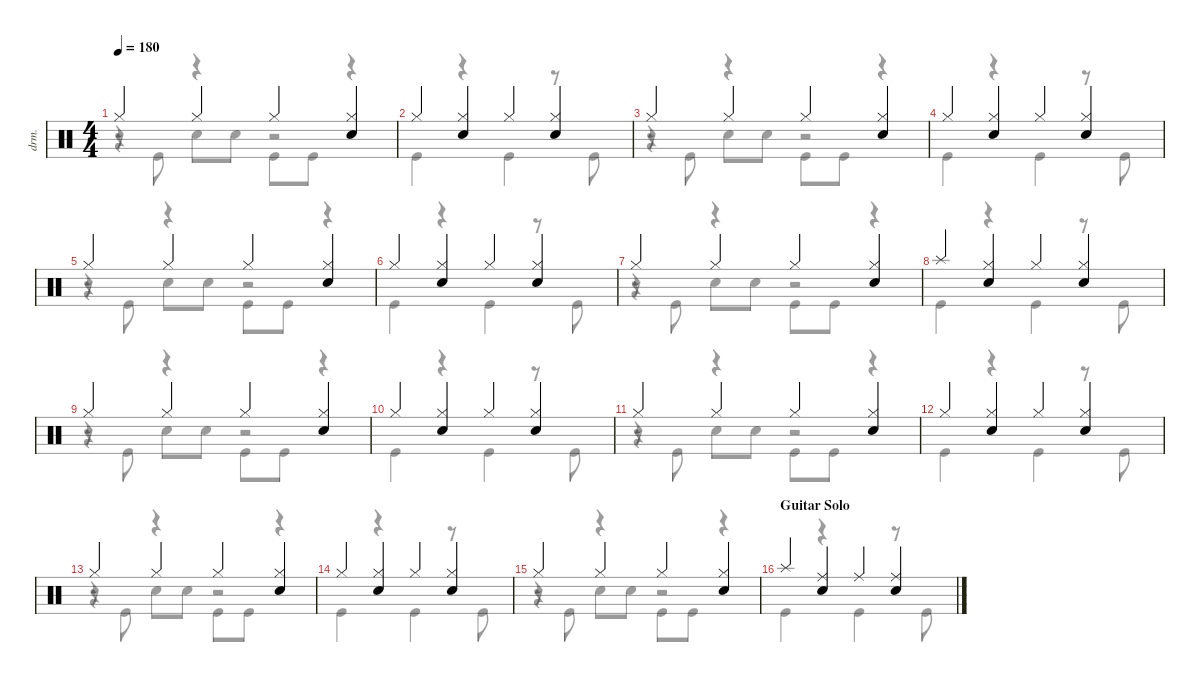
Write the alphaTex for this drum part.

\defaultSystemsLayout 4
\hideDynamics
\bracketExtendMode nobrackets
\otherSystemsTrackNameOrientation horizontal
\track ("Drumkit" "drm.") {instrument percussion}
\staff {score}
\articulation defaults
\voice
\ts (4 4)
\tempo 180
\clef neutral
\ks c "Hi-Hat (closed)".4{dy mf} "Hi-Hat (closed)".4 "Hi-Hat (closed)".4
("Hi-Hat (closed)" "Snare (hit) 2").4 |
"Hi-Hat (closed)".4 ("Hi-Hat (closed)" "Snare (hit) 2").4 "Hi-Hat (closed)".4 ("Hi-Hat (closed)" "Snare (hit) 2").4 |
"Hi-Hat (closed)".4 "Hi-Hat (closed)".4 "Hi-Hat (closed)".4 ("Hi-Hat (closed)" "Snare (hit) 2").4 |
"Hi-Hat (closed)".4 ("Hi-Hat (closed)" "Snare (hit) 2").4 "Hi-Hat (closed)".4 ("Hi-Hat (closed)" "Snare (hit) 2").4 |
"Hi-Hat (closed)".4 "Hi-Hat (closed)".4 "Hi-Hat (closed)".4 ("Hi-Hat (closed)" "Snare (hit) 2").4 |
"Hi-Hat (closed)".4 ("Hi-Hat (closed)" "Snare (hit) 2").4 "Hi-Hat (closed)".4 ("Hi-Hat (closed)" "Snare (hit) 2").4 |
"Hi-Hat (closed)".4 "Hi-Hat (closed)".4 "Hi-Hat (closed)".4 ("Hi-Hat (closed)" "Snare (hit) 2").4 |
"Splash (hit)".4 ("Hi-Hat (closed)" "Snare (hit) 2").4 "Hi-Hat (closed)".4 ("Hi-Hat (closed)" "Snare (hit) 2").4 |
"Hi-Hat (closed)".4 "Hi-Hat (closed)".4 "Hi-Hat (closed)".4 ("Hi-Hat (closed)" "Snare (hit) 2").4 |
"Hi-Hat (closed)".4 ("Hi-Hat (closed)" "Snare (hit) 2").4 "Hi-Hat (closed)".4 ("Hi-Hat (closed)" "Snare (hit) 2").4 |
"Hi-Hat (closed)".4 "Hi-Hat (closed)".4 "Hi-Hat (closed)".4 ("Hi-Hat (closed)" "Snare (hit) 2").4 |
"Hi-Hat (closed)".4 ("Hi-Hat (closed)" "Snare (hit) 2").4 "Hi-Hat (closed)".4 ("Hi-Hat (closed)" "Snare (hit) 2").4 |
"Hi-Hat (closed)".4 "Hi-Hat (closed)".4 "Hi-Hat (closed)".4 ("Hi-Hat (closed)" "Snare (hit) 2").4 |
"Hi-Hat (closed)".4 ("Hi-Hat (closed)" "Snare (hit) 2").4 "Hi-Hat (closed)".4 ("Hi-Hat (closed)" "Snare (hit) 2").4 |
"Hi-Hat (closed)".4 "Hi-Hat (closed)".4 "Hi-Hat (closed)".4 ("Hi-Hat (closed)" "Snare (hit) 2").4 |
\section ("" "Guitar Solo")
"Splash (hit)".4 ("Snare (hit) 2" "Ride (middle)").4 "Ride (middle)".4 ("Snare (hit) 2" "Ride (middle)").4
\voice
\clef neutral
\ottava regular
\simile none
\ks c
r.8{dy mf} "Kick (hit)".8 r.4 "Kick (hit)".8 "Kick (hit)".8 r.4 |
"Kick (hit)".4 r.4 "Kick (hit)".4 r.8 "Kick (hit)".8 |
r.8 "Kick (hit)".8 r.4 "Kick (hit)".8 "Kick (hit)".8 r.4 |
"Kick (hit)".4 r.4 "Kick (hit)".4 r.8 "Kick (hit)".8 |
r.8 "Kick (hit)".8 r.4 "Kick (hit)".8 "Kick (hit)".8 r.4 |
"Kick (hit)".4 r.4 "Kick (hit)".4 r.8 "Kick (hit)".8 |
r.8 "Kick (hit)".8 r.4 "Kick (hit)".8 "Kick (hit)".8 r.4 |
"Kick (hit)".4 r.4 "Kick (hit)".4 r.8 "Kick (hit)".8 |
r.8 "Kick (hit)".8 r.4 "Kick (hit)".8 "Kick (hit)".8 r.4 |
"Kick (hit)".4 r.4 "Kick (hit)".4 r.8 "Kick (hit)".8 |
r.8 "Kick (hit)".8 r.4 "Kick (hit)".8 "Kick (hit)".8 r.4 |
"Kick (hit)".4 r.4 "Kick (hit)".4 r.8 "Kick (hit)".8 |
r.8 "Kick (hit)".8 r.4 "Kick (hit)".8 "Kick (hit)".8 r.4 |
"Kick (hit)".4 r.4 "Kick (hit)".4 r.8 "Kick (hit)".8 |
r.8 "Kick (hit)".8 r.4 "Kick (hit)".8 "Kick (hit)".8 r.4 |
"Kick (hit)".4 r.4 "Kick (hit)".4 r.8 "Kick (hit)".8
\voice
\clef neutral
\ottava regular
\simile none
\ks c
r.4{dy mf} "Snare (hit) 2".8 "Snare (hit) 2".8 r.2 |
|
r.4 "Snare (hit) 2".8 "Snare (hit) 2".8 r.2 |
|
r.4 "Snare (hit) 2".8 "Snare (hit) 2".8 r.2 |
|
r.4 "Snare (hit) 2".8 "Snare (hit) 2".8 r.2 |
|
r.4 "Snare (hit) 2".8 "Snare (hit) 2".8 r.2 |
|
r.4 "Snare (hit) 2".8 "Snare (hit) 2".8 r.2 |
|
r.4 "Snare (hit) 2".8 "Snare (hit) 2".8 r.2 |
|
r.4 "Snare (hit) 2".8 "Snare (hit) 2".8 r.2 |
